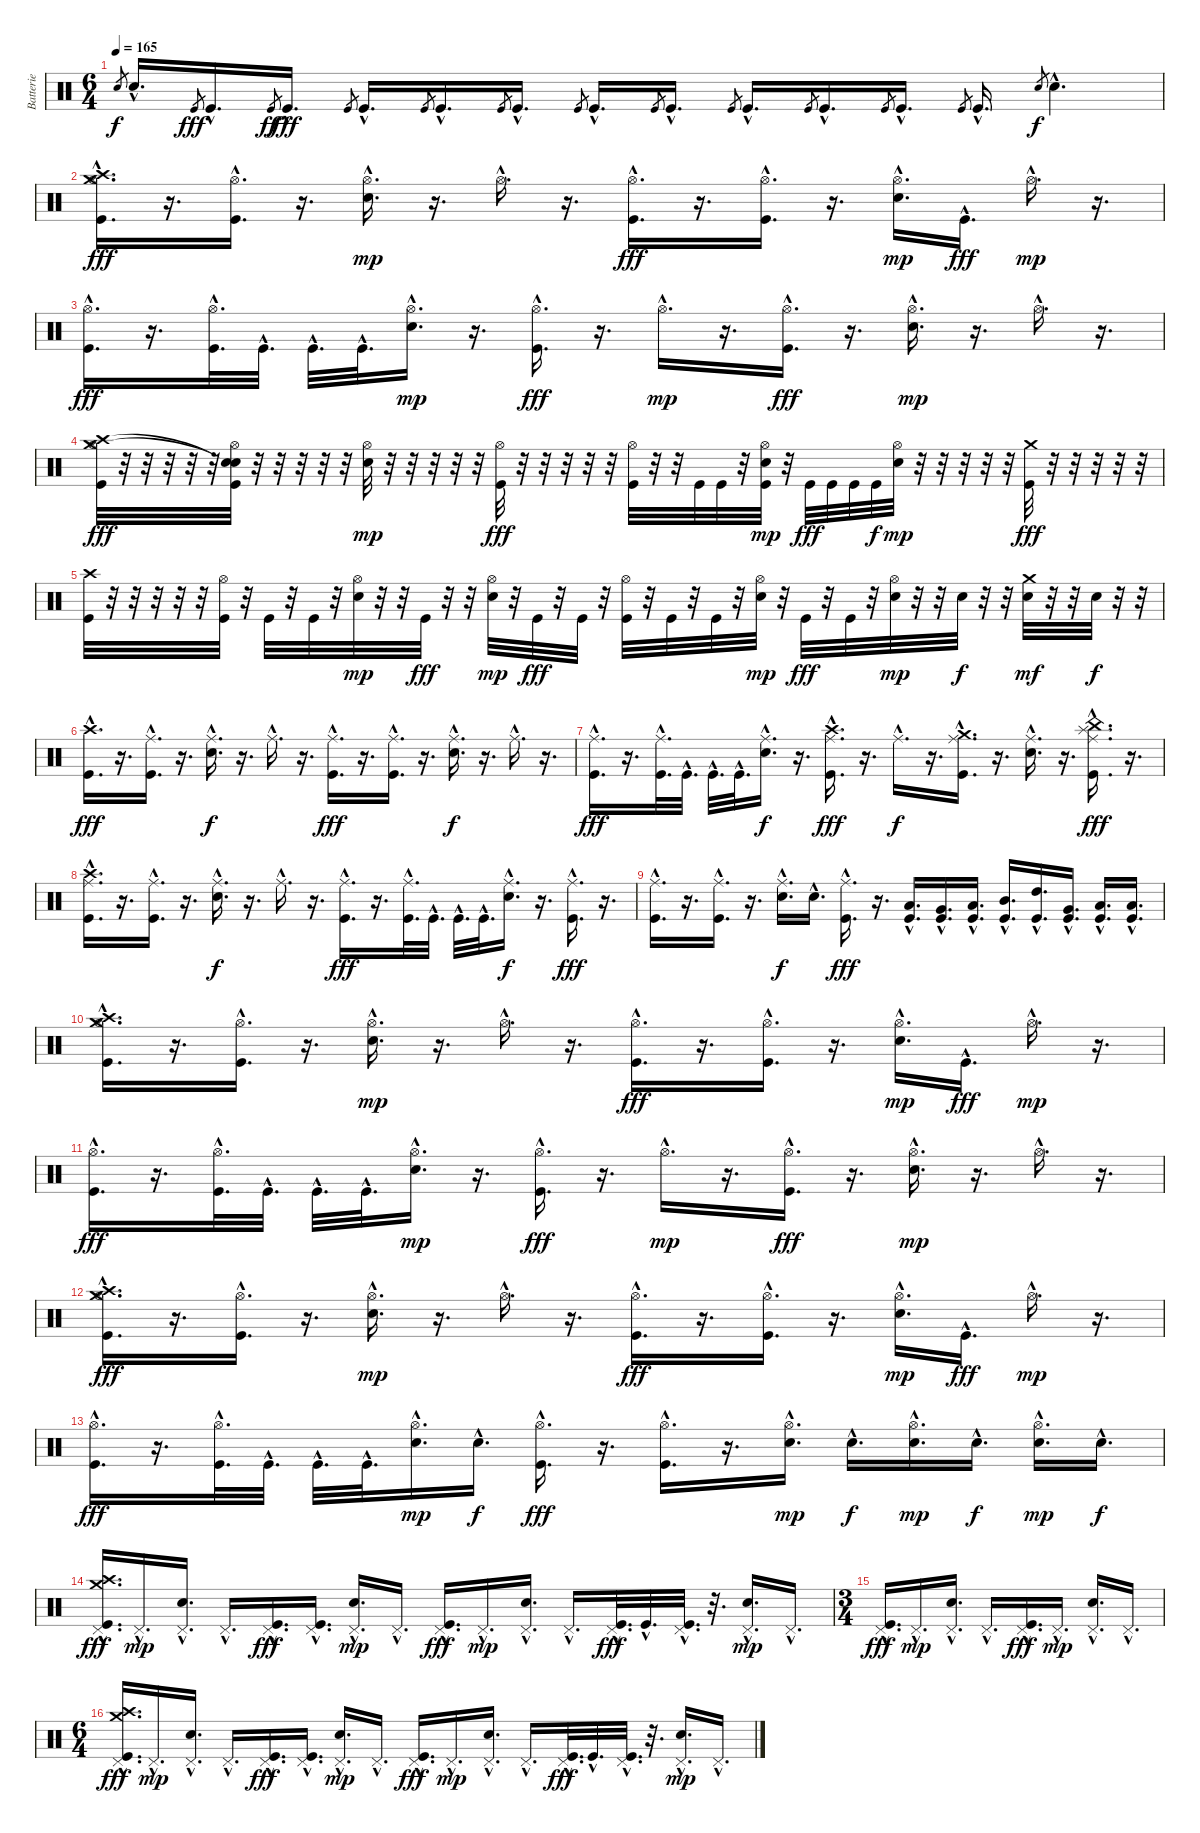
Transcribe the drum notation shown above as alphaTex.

\track ("Batterie" "Batterie") {instrument percussion}
\staff {score}
\articulation defaults
\ts (6 4)
\tempo 165
\clef neutral
\ks c "Electric Snare (hit)".8{gr dy f} "Electric Snare (hit)"{hac}.16{d} "Kick (hit)".8{gr dy fff} "Kick (hit)"{hac}.16{d} "Kick (hit)".8{gr dy ff} "Kick (hit)"{hac}.16{d dy fff} "Kick (hit)".8{gr} "Kick (hit)"{hac}.16{d} "Kick (hit)".8{gr} "Kick (hit)"{hac}.16{d} "Kick (hit)".8{gr} "Kick (hit)"{hac}.16{d} "Kick (hit)".8{gr} "Kick (hit)"{hac}.16{d} "Kick (hit)".8{gr} "Kick (hit)"{hac}.16{d} "Kick (hit)".8{gr} "Kick (hit)"{hac}.16{d} "Kick (hit)".8{gr} "Kick (hit)"{hac}.16{d} "Kick (hit)".8{gr} "Kick (hit)"{hac}.16{d} "Kick (hit)".8{gr} "Kick (hit)"{hac}.16{d} "Electric Snare (hit)".8{gr dy f} "Electric Snare (hit)"{hac}.4{d}
|
("Hi-Hat (open)"{hac} "Crash medium (hit)"{hac} "Crash high (hit)"{hac} "Kick (hit)"{hac}).16{d dy fff} r.16{d} ("Hi-Hat (open)"{hac} "Kick (hit)"{hac}).16{d} r.16{d} ("Hi-Hat (open)"{hac} "Electric Snare (hit)"{hac}).16{d dy mp} r.16{d} "Hi-Hat (open)"{hac}.16{d} r.16{d} ("Hi-Hat (open)"{hac} "Kick (hit)"{hac}).16{d dy fff} r.16{d} ("Hi-Hat (open)"{hac} "Kick (hit)"{hac}).16{d} r.16{d} ("Hi-Hat (open)"{hac} "Electric Snare (hit)"{hac}).16{d dy mp} "Kick (hit)"{hac}.16{d dy fff} "Hi-Hat (open)"{hac}.16{d dy mp} r.16{d} |
("Hi-Hat (open)"{hac} "Kick (hit)"{hac}).16{d dy fff} r.16{d} ("Hi-Hat (open)"{hac} "Kick (hit)"{hac}).32{d} "Kick (hit)"{hac}.32{d} "Kick (hit)"{hac}.32{d} "Kick (hit)"{hac}.32{d} ("Hi-Hat (open)"{hac} "Electric Snare (hit)"{hac}).16{d dy mp} r.16{d} ("Hi-Hat (open)"{hac} "Kick (hit)"{hac}).16{d dy fff} r.16{d} "Hi-Hat (open)"{hac}.16{d dy mp} r.16{d} ("Hi-Hat (open)"{hac} "Kick (hit)"{hac}).16{d dy fff} r.16{d} ("Hi-Hat (open)"{hac} "Electric Snare (hit)"{hac}).16{d dy mp} r.16{d} "Hi-Hat (open)"{hac}.16{d} r.16{d} |
("Hi-Hat (open)" "Crash high (hit)" "Crash medium (hit)" "Kick (hit)").32{dy fff} r.32 r.32 r.32 r.32 r.32 ("Hi-Hat (open)" "Snare (hit)"{t} "Snare (hit)"{t} "Kick (hit)").32 r.32 r.32 r.32 r.32 r.32 ("Hi-Hat (open)" "Electric Snare (hit)").32{dy mp} r.32 r.32 r.32 r.32 r.32 ("Hi-Hat (open)" "Kick (hit)").32{dy fff} r.32 r.32 r.32 r.32 r.32 ("Hi-Hat (open)" "Kick (hit)").32 r.32 r.32 "Kick (hit)".32 "Kick (hit)".32 r.32 ("Hi-Hat (open)" "Snare (hit) 2" "Kick (hit)").32{dy mp} r.32 "Kick (hit)".32{dy fff} "Kick (hit)".32 "Kick (hit)".32 "Kick (hit)".32{dy f} ("Hi-Hat (open)" "Electric Snare (hit)").32{dy mp} r.32 r.32 r.32 r.32 r.32 ("Crash medium (hit)" "Kick (hit)").32{dy fff} r.32 r.32 r.32 r.32 r.32 |
("Crash high (hit)" "Kick (hit)").32 r.32 r.32 r.32 r.32 r.32 ("Hi-Hat (open)" "Kick (hit)").32 r.32 "Kick (hit)".32 r.32 "Kick (hit)".32 r.32 ("Hi-Hat (open)" "Electric Snare (hit)").32{dy mp} r.32 r.32 "Kick (hit)".32{dy fff} r.32 r.32 ("Hi-Hat (open)" "Electric Snare (hit)").32{dy mp} r.32 "Kick (hit)".32{dy fff} r.32 "Kick (hit)".32 r.32 ("Hi-Hat (open)" "Kick (hit)").32 r.32 "Kick (hit)".32 r.32 "Kick (hit)".32 r.32 ("Hi-Hat (open)" "Electric Snare (hit)").32{dy mp} r.32 "Kick (hit)".32{dy fff} r.32 "Kick (hit)".32 r.32 ("Hi-Hat (open)" "Electric Snare (hit)").32{dy mp} r.32 r.32 "Electric Snare (hit)".32{dy f} r.32 r.32 ("Crash medium (hit)" "Electric Snare (hit)").32{dy mf} r.32 r.32 "Electric Snare (hit)".32{dy f} r.32 r.32 |
("Crash high (hit)"{hac} "Kick (hit)"{hac}).16{d dy fff} r.16{d} ("Ride (middle)"{hac} "Kick (hit)"{hac}).16{d} r.16{d} ("Ride (middle)"{hac} "Electric Snare (hit)"{hac}).16{d dy f} r.16{d} "Ride (middle)"{hac}.16{d} r.16{d} ("Ride (middle)"{hac} "Kick (hit)"{hac}).16{d dy fff} r.16{d} ("Ride (middle)"{hac} "Kick (hit)"{hac}).16{d} r.16{d} ("Ride (middle)"{hac} "Electric Snare (hit)"{hac}).16{d dy f} r.16{d} "Ride (middle)"{hac}.16{d} r.16{d} |
("Ride (middle)"{hac} "Kick (hit)"{hac}).16{d dy fff} r.16{d} ("Ride (middle)"{hac} "Kick (hit)"{hac}).32{d} "Kick (hit)"{hac}.32{d} "Kick (hit)"{hac}.32{d} "Kick (hit)"{hac}.32{d} ("Ride (middle)"{hac} "Electric Snare (hit)"{hac}).16{d dy f} r.16{d} ("Ride (middle)"{hac} "Crash high (hit)"{hac} "Kick (hit)"{hac}).16{d dy fff} r.16{d} "Ride (middle)"{hac}.16{d dy f} r.16{d} ("Ride (middle)"{hac} "Crash medium (hit)"{hac} "Kick (hit)"{hac}).16{d} r.16{d} ("Ride (middle)"{hac} "Electric Snare (hit)"{hac}).16{d} r.16{d} ("Ride (middle)"{hac} "Splash (hit)"{hac} "China (hit)"{hac} "Kick (hit)"{hac}).16{d dy fff} r.16{d} |
("Ride (middle)"{hac} "Crash high (hit)"{hac} "Kick (hit)"{hac}).16{d} r.16{d} ("Ride (middle)"{hac} "Kick (hit)"{hac}).16{d} r.16{d} ("Ride (middle)"{hac} "Electric Snare (hit)"{hac}).16{d dy f} r.16{d} "Ride (middle)"{hac}.16{d} r.16{d} ("Ride (middle)"{hac} "Kick (hit)"{hac}).16{d dy fff} r.16{d} ("Ride (middle)"{hac} "Kick (hit)"{hac}).32{d} "Kick (hit)"{hac}.32{d} "Kick (hit)"{hac}.32{d} "Kick (hit)"{hac}.32{d} ("Ride (middle)"{hac} "Electric Snare (hit)"{hac}).16{d dy f} r.16{d} ("Ride (middle)"{hac} "Kick (hit)"{hac}).16{d dy fff} r.16{d} |
("Ride (middle)"{hac} "Kick (hit)"{hac}).16{d} r.16{d} ("Ride (middle)"{hac} "Kick (hit)"{hac}).16{d} r.16{d} ("Ride (middle)"{hac} "Electric Snare (hit)"{hac}).16{d dy f} "Electric Snare (hit)"{hac}.16{d} ("Ride (middle)"{hac} "Kick (hit)"{hac}).16{d dy fff} r.16{d} ("Low Floor Tom (hit)"{hac} "Kick (hit)"{hac}).16{d} ("Very Low Tom (hit)"{hac} "Kick (hit)"{hac}).16{d} ("Low Tom (hit)"{hac} "Kick (hit)"{hac}).16{d} ("Mid Tom (hit)"{hac} "Kick (hit)"{hac}).16{d} ("High Tom (hit)"{hac} "Kick (hit)"{hac}).16{d} ("Very Low Tom (hit)"{hac} "Kick (hit)"{hac}).16{d} ("Low Tom (hit)"{hac} "Kick (hit)"{hac}).16{d} ("Low Floor Tom (hit)"{hac} "Kick (hit)"{hac}).16{d} |
("Hi-Hat (open)"{hac} "Crash medium (hit)"{hac} "Crash high (hit)"{hac} "Kick (hit)"{hac}).16{d} r.16{d} ("Hi-Hat (open)"{hac} "Kick (hit)"{hac}).16{d} r.16{d} ("Hi-Hat (open)"{hac} "Electric Snare (hit)"{hac}).16{d dy mp} r.16{d} "Hi-Hat (open)"{hac}.16{d} r.16{d} ("Hi-Hat (open)"{hac} "Kick (hit)"{hac}).16{d dy fff} r.16{d} ("Hi-Hat (open)"{hac} "Kick (hit)"{hac}).16{d} r.16{d} ("Hi-Hat (open)"{hac} "Electric Snare (hit)"{hac}).16{d dy mp} "Kick (hit)"{hac}.16{d dy fff} "Hi-Hat (open)"{hac}.16{d dy mp} r.16{d} |
("Hi-Hat (open)"{hac} "Kick (hit)"{hac}).16{d dy fff} r.16{d} ("Hi-Hat (open)"{hac} "Kick (hit)"{hac}).32{d} "Kick (hit)"{hac}.32{d} "Kick (hit)"{hac}.32{d} "Kick (hit)"{hac}.32{d} ("Hi-Hat (open)"{hac} "Electric Snare (hit)"{hac}).16{d dy mp} r.16{d} ("Hi-Hat (open)"{hac} "Kick (hit)"{hac}).16{d dy fff} r.16{d} "Hi-Hat (open)"{hac}.16{d dy mp} r.16{d} ("Hi-Hat (open)"{hac} "Kick (hit)"{hac}).16{d dy fff} r.16{d} ("Hi-Hat (open)"{hac} "Electric Snare (hit)"{hac}).16{d dy mp} r.16{d} "Hi-Hat (open)"{hac}.16{d} r.16{d} |
("Hi-Hat (open)"{hac} "Crash medium (hit)"{hac} "Crash high (hit)"{hac} "Kick (hit)"{hac}).16{d dy fff} r.16{d} ("Hi-Hat (open)"{hac} "Kick (hit)"{hac}).16{d} r.16{d} ("Hi-Hat (open)"{hac} "Electric Snare (hit)"{hac}).16{d dy mp} r.16{d} "Hi-Hat (open)"{hac}.16{d} r.16{d} ("Hi-Hat (open)"{hac} "Kick (hit)"{hac}).16{d dy fff} r.16{d} ("Hi-Hat (open)"{hac} "Kick (hit)"{hac}).16{d} r.16{d} ("Hi-Hat (open)"{hac} "Electric Snare (hit)"{hac}).16{d dy mp} "Kick (hit)"{hac}.16{d dy fff} "Hi-Hat (open)"{hac}.16{d dy mp} r.16{d} |
("Hi-Hat (open)"{hac} "Kick (hit)"{hac}).16{d dy fff} r.16{d} ("Hi-Hat (open)"{hac} "Kick (hit)"{hac}).32{d} "Kick (hit)"{hac}.32{d} "Kick (hit)"{hac}.32{d} "Kick (hit)"{hac}.32{d} ("Hi-Hat (open)"{hac} "Electric Snare (hit)"{hac}).16{d dy mp} "Electric Snare (hit)"{hac}.16{d dy f} ("Hi-Hat (open)"{hac} "Kick (hit)"{hac}).16{d dy fff} r.16{d} ("Hi-Hat (open)"{hac} "Kick (hit)"{hac}).16{d} r.16{d} ("Hi-Hat (open)"{hac} "Electric Snare (hit)"{hac}).16{d dy mp} "Electric Snare (hit)"{hac}.16{d dy f} ("Hi-Hat (open)"{hac} "Electric Snare (hit)"{hac}).16{d dy mp} "Electric Snare (hit)"{hac}.16{d dy f} ("Hi-Hat (open)"{hac} "Electric Snare (hit)"{hac}).16{d dy mp} "Electric Snare (hit)"{hac}.16{d dy f} |
("Pedal Hi-Hat (hit)"{hac} "Crash medium (hit)"{hac} "Crash high (hit)"{hac} "Kick (hit)"{hac}).16{d dy fff} "Pedal Hi-Hat (hit)"{hac}.16{d dy mp} ("Pedal Hi-Hat (hit)"{hac} "Electric Snare (hit)"{hac}).16{d} "Pedal Hi-Hat (hit)"{hac}.16{d} ("Pedal Hi-Hat (hit)"{hac} "Kick (hit)"{hac}).16{d dy fff} ("Pedal Hi-Hat (hit)"{hac} "Kick (hit)"{hac}).16{d} ("Pedal Hi-Hat (hit)"{hac} "Electric Snare (hit)"{hac}).16{d dy mp} "Pedal Hi-Hat (hit)"{hac}.16{d} ("Pedal Hi-Hat (hit)"{hac} "Kick (hit)"{hac}).16{d dy fff} "Pedal Hi-Hat (hit)"{hac}.16{d dy mp} ("Pedal Hi-Hat (hit)"{hac} "Electric Snare (hit)"{hac}).16{d} "Pedal Hi-Hat (hit)"{hac}.16{d} ("Pedal Hi-Hat (hit)"{hac} "Kick (hit)"{hac}).32{d dy fff} "Kick (hit)"{hac}.32{d} ("Pedal Hi-Hat (hit)"{hac} "Kick (hit)"{hac}).32{d} r.32{d} ("Pedal Hi-Hat (hit)"{hac} "Electric Snare (hit)"{hac}).16{d dy mp} "Pedal Hi-Hat (hit)"{hac}.16{d} |
\ts (3 4)
("Pedal Hi-Hat (hit)"{hac} "Kick (hit)"{hac}).16{d dy fff} "Pedal Hi-Hat (hit)"{hac}.16{d dy mp} ("Pedal Hi-Hat (hit)"{hac} "Electric Snare (hit)"{hac}).16{d} "Pedal Hi-Hat (hit)"{hac}.16{d} ("Pedal Hi-Hat (hit)"{hac} "Kick (hit)"{hac}).16{d dy fff} "Pedal Hi-Hat (hit)"{hac}.16{d dy mp} ("Pedal Hi-Hat (hit)"{hac} "Electric Snare (hit)"{hac}).16{d} "Pedal Hi-Hat (hit)"{hac}.16{d} |
\ts (6 4)
("Pedal Hi-Hat (hit)"{hac} "Crash medium (hit)"{hac} "Crash high (hit)"{hac} "Kick (hit)"{hac}).16{d dy fff} "Pedal Hi-Hat (hit)"{hac}.16{d dy mp} ("Pedal Hi-Hat (hit)"{hac} "Electric Snare (hit)"{hac}).16{d} "Pedal Hi-Hat (hit)"{hac}.16{d} ("Pedal Hi-Hat (hit)"{hac} "Kick (hit)"{hac}).16{d dy fff} ("Pedal Hi-Hat (hit)"{hac} "Kick (hit)"{hac}).16{d} ("Pedal Hi-Hat (hit)"{hac} "Electric Snare (hit)"{hac}).16{d dy mp} "Pedal Hi-Hat (hit)"{hac}.16{d} ("Pedal Hi-Hat (hit)"{hac} "Kick (hit)"{hac}).16{d dy fff} "Pedal Hi-Hat (hit)"{hac}.16{d dy mp} ("Pedal Hi-Hat (hit)"{hac} "Electric Snare (hit)"{hac}).16{d} "Pedal Hi-Hat (hit)"{hac}.16{d} ("Pedal Hi-Hat (hit)"{hac} "Kick (hit)"{hac}).32{d dy fff} "Kick (hit)"{hac}.32{d} ("Pedal Hi-Hat (hit)"{hac} "Kick (hit)"{hac}).32{d} r.32{d} ("Pedal Hi-Hat (hit)"{hac} "Electric Snare (hit)"{hac}).16{d dy mp} "Pedal Hi-Hat (hit)"{hac}.16{d}
